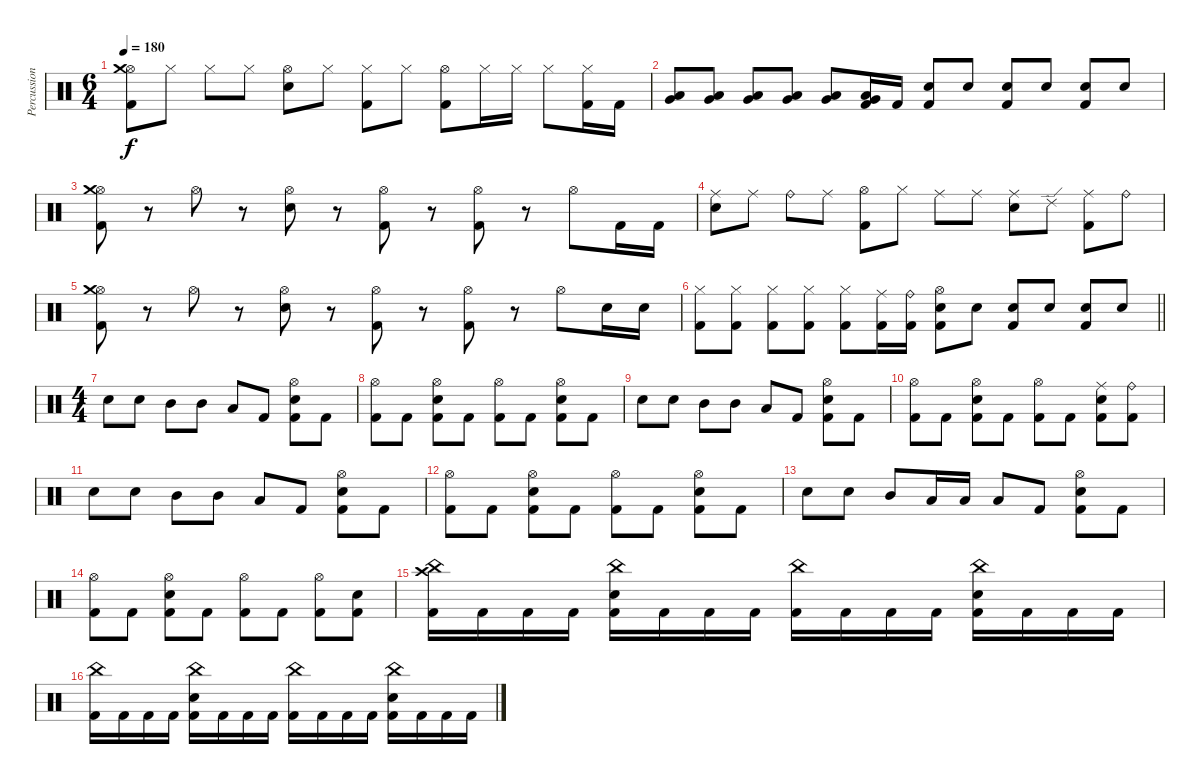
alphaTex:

\track ("Percussions" "Percussion") {instrument percussion}
\staff {score}
\articulation defaults
\ts (6 4)
\tempo 180
\clef neutral
\ks c
("Hi-Hat (open)" "Crash medium (hit)" "Kick (hit) 2").8{dy f} "Hi-Hat (closed)".8 "Hi-Hat (closed)".8 "Hi-Hat (closed)".8 ("Hi-Hat (open)" "Electric Snare (hit)").8 "Hi-Hat (closed)".8 ("Hi-Hat (closed)" "Kick (hit) 2").8 "Hi-Hat (closed)".8 ("Hi-Hat (open)" "Kick (hit) 2").8 "Hi-Hat (closed)".16 "Hi-Hat (closed)".16 "Hi-Hat (closed)".8 ("Hi-Hat (closed)" "Kick (hit) 2").16 "Kick (hit) 2".16 |
("Low Tom (hit)" "Very Low Tom (hit)").8 ("Low Tom (hit)" "Very Low Tom (hit)").8 ("Low Tom (hit)" "Very Low Tom (hit)").8 ("Low Tom (hit)" "Very Low Tom (hit)").8 ("Low Tom (hit)" "Very Low Tom (hit)").8 ("Low Tom (hit)" "Very Low Tom (hit)" "Kick (hit) 2").16 "Kick (hit) 2".16 ("Electric Snare (hit)" "Kick (hit) 2").8 "Electric Snare (hit)".8 ("Electric Snare (hit)" "Kick (hit) 2").8 "Electric Snare (hit)".8 ("Electric Snare (hit)" "Kick (hit) 2").8 "Electric Snare (hit)".8 |
("Hi-Hat (open)" "Crash medium (hit)" "Kick (hit) 2").8 r.8 "Hi-Hat (open)".8 r.8 ("Hi-Hat (open)" "Electric Snare (hit)").8 r.8 ("Hi-Hat (open)" "Kick (hit) 2").8 r.8 ("Hi-Hat (open)" "Kick (hit) 2").8 r.8 "Hi-Hat (open)".8 "Kick (hit) 2".16 "Kick (hit) 2".16 |
("Ride (middle)" "Electric Snare (hit)").8 "Ride (middle)".8 "Ride (bell)".8 "Ride (middle)".8 ("Hi-Hat (open)" "Kick (hit) 2").8 "Hi-Hat (closed)".8 "Ride (middle)".8 "Ride (middle)".8 ("Ride (middle)" "Electric Snare (hit)").8 "Ride (edge) 2".8 ("Ride (middle)" "Kick (hit) 2").8 "Ride (bell)".8 |
("Hi-Hat (open)" "Crash medium (hit)" "Kick (hit) 2").8 r.8 "Hi-Hat (open)".8 r.8 ("Hi-Hat (open)" "Electric Snare (hit)").8 r.8 ("Hi-Hat (open)" "Kick (hit) 2").8 r.8 ("Hi-Hat (open)" "Kick (hit) 2").8 r.8 "Hi-Hat (open)".8 "Electric Snare (hit)".16 "Electric Snare (hit)".16 |
\barLineRight lightlight
("Hi-Hat (closed)" "Kick (hit) 2").8 ("Hi-Hat (closed)" "Kick (hit) 2").8 ("Hi-Hat (closed)" "Kick (hit) 2").8 ("Hi-Hat (closed)" "Kick (hit) 2").8 ("Hi-Hat (closed)" "Kick (hit) 2").8 ("Ride (middle)" "Kick (hit) 2").16 ("Ride (bell)" "Kick (hit) 2").16 ("Hi-Hat (open)" "Electric Snare (hit)" "Kick (hit) 2").8 "Electric Snare (hit)".8 ("Electric Snare (hit)" "Kick (hit) 2").8 "Electric Snare (hit)".8 ("Electric Snare (hit)" "Kick (hit) 2").8 "Electric Snare (hit)".8 |
\ts (4 4)
"Electric Snare (hit)".8 "Electric Snare (hit)".8 "Mid Tom (hit)".8 "Mid Tom (hit)".8 "Low Tom (hit)".8 "Kick (hit) 2".8 ("Hi-Hat (open)" "Electric Snare (hit)" "Kick (hit) 2").8 "Kick (hit) 2".8 |
("Hi-Hat (open)" "Kick (hit) 2").8 "Kick (hit) 2".8 ("Hi-Hat (open)" "Electric Snare (hit)" "Kick (hit) 2").8 "Kick (hit) 2".8 ("Hi-Hat (open)" "Kick (hit) 2").8 "Kick (hit) 2".8 ("Hi-Hat (open)" "Electric Snare (hit)" "Kick (hit) 2").8 "Kick (hit) 2".8 |
"Electric Snare (hit)".8 "Electric Snare (hit)".8 "Mid Tom (hit)".8 "Mid Tom (hit)".8 "Low Tom (hit)".8 "Kick (hit) 2".8 ("Hi-Hat (open)" "Electric Snare (hit)" "Kick (hit) 2").8 "Kick (hit) 2".8 |
("Hi-Hat (open)" "Kick (hit) 2").8 "Kick (hit) 2".8 ("Hi-Hat (open)" "Electric Snare (hit)" "Kick (hit) 2").8 "Kick (hit) 2".8 ("Hi-Hat (open)" "Kick (hit) 2").8 "Kick (hit) 2".8 ("Ride (middle)" "Electric Snare (hit)" "Kick (hit) 2").8 ("Ride (bell)" "Kick (hit) 2").8 |
"Electric Snare (hit)".8 "Electric Snare (hit)".8 "Mid Tom (hit)".8 "Mid Tom (hit)".8 "Low Tom (hit)".8 "Kick (hit) 2".8 ("Hi-Hat (open)" "Electric Snare (hit)" "Kick (hit) 2").8 "Kick (hit) 2".8 |
("Hi-Hat (open)" "Kick (hit) 2").8 "Kick (hit) 2".8 ("Hi-Hat (open)" "Electric Snare (hit)" "Kick (hit) 2").8 "Kick (hit) 2".8 ("Hi-Hat (open)" "Kick (hit) 2").8 "Kick (hit) 2".8 ("Hi-Hat (open)" "Electric Snare (hit)" "Kick (hit) 2").8 "Kick (hit) 2".8 |
"Electric Snare (hit)".8 "Electric Snare (hit)".8 "Mid Tom (hit)".8 "Low Tom (hit)".16 "Low Tom (hit)".16 "Low Tom (hit)".8 "Kick (hit) 2".8 ("Hi-Hat (open)" "Electric Snare (hit)" "Kick (hit) 2").8 "Kick (hit) 2".8 |
("Hi-Hat (open)" "Kick (hit) 2").8 "Kick (hit) 2".8 ("Hi-Hat (open)" "Electric Snare (hit)" "Kick (hit) 2").8 "Kick (hit) 2".8 ("Hi-Hat (open)" "Kick (hit) 2").8 "Kick (hit) 2".8 ("Hi-Hat (open)" "Kick (hit) 2").8 ("Electric Snare (hit)" "Kick (hit) 2").8 |
("China (hit)" "Crash high (hit)" "Kick (hit) 2").16 "Kick (hit) 2".16 "Kick (hit) 2".16 "Kick (hit) 2".16 ("China (hit)" "Electric Snare (hit)" "Kick (hit) 2").16 "Kick (hit) 2".16 "Kick (hit) 2".16 "Kick (hit) 2".16 ("China (hit)" "Kick (hit) 2").16 "Kick (hit) 2".16 "Kick (hit) 2".16 "Kick (hit) 2".16 ("China (hit)" "Electric Snare (hit)" "Kick (hit) 2").16 "Kick (hit) 2".16 "Kick (hit) 2".16 "Kick (hit) 2".16 |
("China (hit)" "Kick (hit) 2").16 "Kick (hit) 2".16 "Kick (hit) 2".16 "Kick (hit) 2".16 ("China (hit)" "Electric Snare (hit)" "Kick (hit) 2").16 "Kick (hit) 2".16 "Kick (hit) 2".16 "Kick (hit) 2".16 ("China (hit)" "Kick (hit) 2").16 "Kick (hit) 2".16 "Kick (hit) 2".16 "Kick (hit) 2".16 ("China (hit)" "Electric Snare (hit)" "Kick (hit) 2").16 "Kick (hit) 2".16 "Kick (hit) 2".16 "Kick (hit) 2".16
